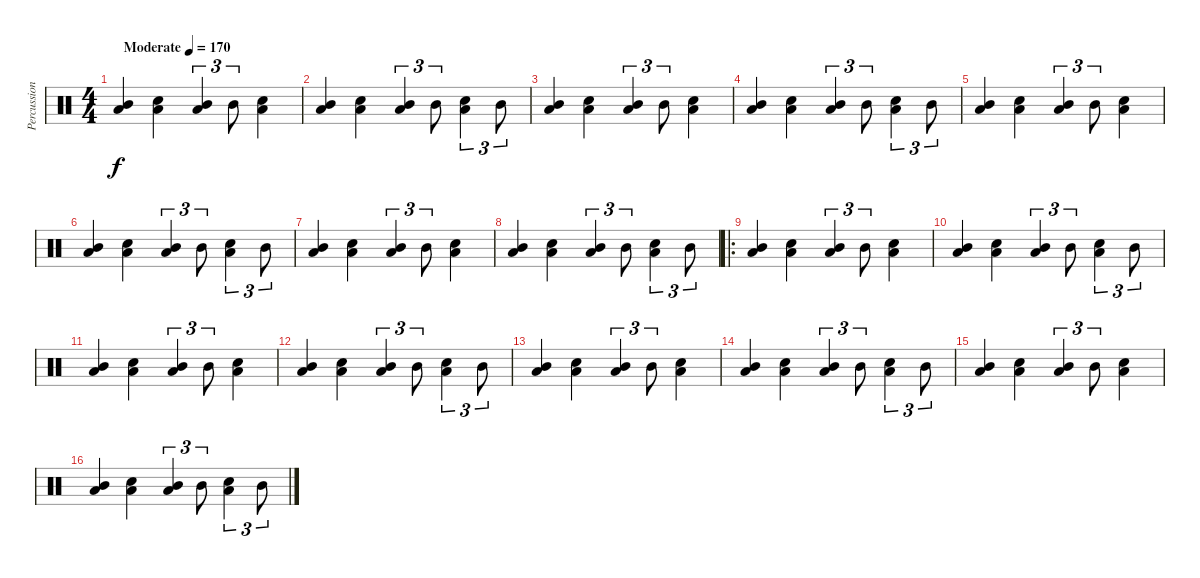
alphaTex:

\track ("Percussion" "Percussion") {instrument percussion}
\staff {score}
\articulation defaults
\ts (4 4)
\tempo (170 "Moderate")
\clef neutral
\ks c
("Low Floor Tom (hit)" "Mid Tom (hit)").4{dy f} ("Low Floor Tom (hit)" "Snare (hit) 2").4 ("Low Floor Tom (hit)" "Mid Tom (hit)").4{tu (3 2)} "Mid Tom (hit)".8{tu (3 2)} ("Low Floor Tom (hit)" "Snare (hit) 2").4 |
("Low Floor Tom (hit)" "Mid Tom (hit)").4 ("Low Floor Tom (hit)" "Snare (hit) 2").4 ("Low Floor Tom (hit)" "Mid Tom (hit)").4{tu (3 2)} "Mid Tom (hit)".8{tu (3 2)} ("Low Floor Tom (hit)" "Snare (hit) 2").4{tu (3 2)} "Mid Tom (hit)".8{tu (3 2)} |
("Low Floor Tom (hit)" "Mid Tom (hit)").4 ("Low Floor Tom (hit)" "Snare (hit) 2").4 ("Low Floor Tom (hit)" "Mid Tom (hit)").4{tu (3 2)} "Mid Tom (hit)".8{tu (3 2)} ("Low Floor Tom (hit)" "Snare (hit) 2").4 |
("Low Floor Tom (hit)" "Mid Tom (hit)").4 ("Low Floor Tom (hit)" "Snare (hit) 2").4 ("Low Floor Tom (hit)" "Mid Tom (hit)").4{tu (3 2)} "Mid Tom (hit)".8{tu (3 2)} ("Low Floor Tom (hit)" "Snare (hit) 2").4{tu (3 2)} "Mid Tom (hit)".8{tu (3 2)} |
("Low Floor Tom (hit)" "Mid Tom (hit)").4 ("Low Floor Tom (hit)" "Snare (hit) 2").4 ("Low Floor Tom (hit)" "Mid Tom (hit)").4{tu (3 2)} "Mid Tom (hit)".8{tu (3 2)} ("Low Floor Tom (hit)" "Snare (hit) 2").4 |
("Low Floor Tom (hit)" "Mid Tom (hit)").4 ("Low Floor Tom (hit)" "Snare (hit) 2").4 ("Low Floor Tom (hit)" "Mid Tom (hit)").4{tu (3 2)} "Mid Tom (hit)".8{tu (3 2)} ("Low Floor Tom (hit)" "Snare (hit) 2").4{tu (3 2)} "Mid Tom (hit)".8{tu (3 2)} |
("Low Floor Tom (hit)" "Mid Tom (hit)").4 ("Low Floor Tom (hit)" "Snare (hit) 2").4 ("Low Floor Tom (hit)" "Mid Tom (hit)").4{tu (3 2)} "Mid Tom (hit)".8{tu (3 2)} ("Low Floor Tom (hit)" "Snare (hit) 2").4 |
("Low Floor Tom (hit)" "Mid Tom (hit)").4 ("Low Floor Tom (hit)" "Snare (hit) 2").4 ("Low Floor Tom (hit)" "Mid Tom (hit)").4{tu (3 2)} "Mid Tom (hit)".8{tu (3 2)} ("Low Floor Tom (hit)" "Snare (hit) 2").4{tu (3 2)} "Mid Tom (hit)".8{tu (3 2)} |
\ro
("Low Floor Tom (hit)" "Mid Tom (hit)").4 ("Low Floor Tom (hit)" "Snare (hit) 2").4 ("Low Floor Tom (hit)" "Mid Tom (hit)").4{tu (3 2)} "Mid Tom (hit)".8{tu (3 2)} ("Low Floor Tom (hit)" "Snare (hit) 2").4 |
("Low Floor Tom (hit)" "Mid Tom (hit)").4 ("Low Floor Tom (hit)" "Snare (hit) 2").4 ("Low Floor Tom (hit)" "Mid Tom (hit)").4{tu (3 2)} "Mid Tom (hit)".8{tu (3 2)} ("Low Floor Tom (hit)" "Snare (hit) 2").4{tu (3 2)} "Mid Tom (hit)".8{tu (3 2)} |
("Low Floor Tom (hit)" "Mid Tom (hit)").4 ("Low Floor Tom (hit)" "Snare (hit) 2").4 ("Low Floor Tom (hit)" "Mid Tom (hit)").4{tu (3 2)} "Mid Tom (hit)".8{tu (3 2)} ("Low Floor Tom (hit)" "Snare (hit) 2").4 |
("Low Floor Tom (hit)" "Mid Tom (hit)").4 ("Low Floor Tom (hit)" "Snare (hit) 2").4 ("Low Floor Tom (hit)" "Mid Tom (hit)").4{tu (3 2)} "Mid Tom (hit)".8{tu (3 2)} ("Low Floor Tom (hit)" "Snare (hit) 2").4{tu (3 2)} "Mid Tom (hit)".8{tu (3 2)} |
("Low Floor Tom (hit)" "Mid Tom (hit)").4 ("Low Floor Tom (hit)" "Snare (hit) 2").4 ("Low Floor Tom (hit)" "Mid Tom (hit)").4{tu (3 2)} "Mid Tom (hit)".8{tu (3 2)} ("Low Floor Tom (hit)" "Snare (hit) 2").4 |
("Low Floor Tom (hit)" "Mid Tom (hit)").4 ("Low Floor Tom (hit)" "Snare (hit) 2").4 ("Low Floor Tom (hit)" "Mid Tom (hit)").4{tu (3 2)} "Mid Tom (hit)".8{tu (3 2)} ("Low Floor Tom (hit)" "Snare (hit) 2").4{tu (3 2)} "Mid Tom (hit)".8{tu (3 2)} |
("Low Floor Tom (hit)" "Mid Tom (hit)").4 ("Low Floor Tom (hit)" "Snare (hit) 2").4 ("Low Floor Tom (hit)" "Mid Tom (hit)").4{tu (3 2)} "Mid Tom (hit)".8{tu (3 2)} ("Low Floor Tom (hit)" "Snare (hit) 2").4 |
("Low Floor Tom (hit)" "Mid Tom (hit)").4 ("Low Floor Tom (hit)" "Snare (hit) 2").4 ("Low Floor Tom (hit)" "Mid Tom (hit)").4{tu (3 2)} "Mid Tom (hit)".8{tu (3 2)} ("Low Floor Tom (hit)" "Snare (hit) 2").4{tu (3 2)} "Mid Tom (hit)".8{tu (3 2)}
